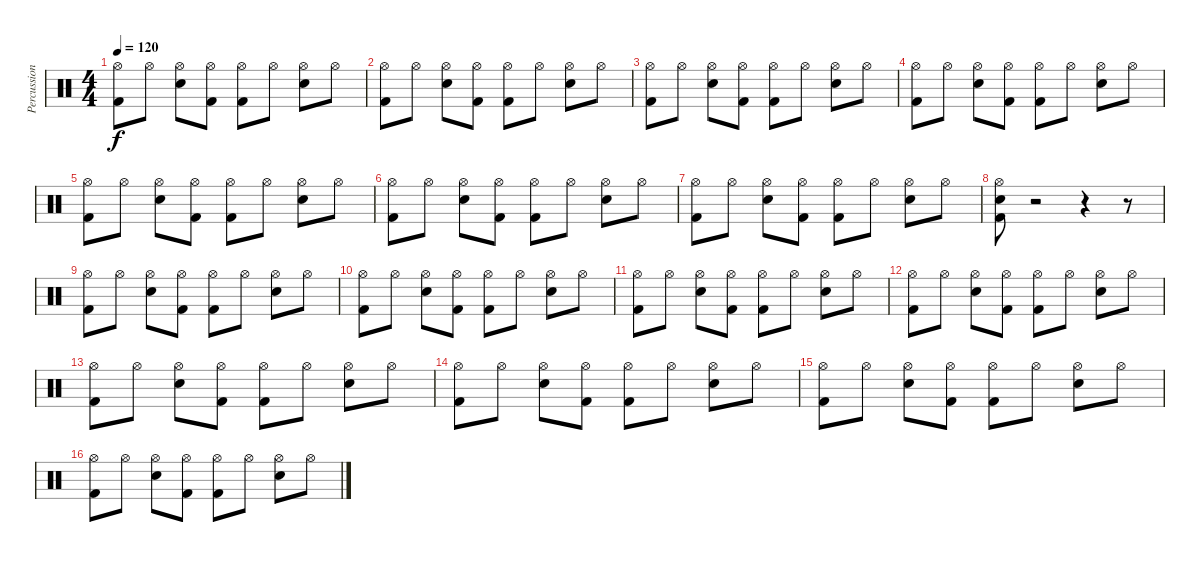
\track ("Percussion" "Percussion") {instrument percussion}
\staff {score}
\articulation defaults
\ts (4 4)
\tempo 120
\clef neutral
\ks c
("Hi-Hat (open)" "Kick (hit) 2").8{dy f} "Hi-Hat (open)".8 ("Hi-Hat (open)" "Snare (hit) 2").8 ("Hi-Hat (open)" "Kick (hit) 2").8 ("Hi-Hat (open)" "Kick (hit) 2").8 "Hi-Hat (open)".8 ("Hi-Hat (open)" "Snare (hit) 2").8 "Hi-Hat (open)".8 |
("Hi-Hat (open)" "Kick (hit) 2").8 "Hi-Hat (open)".8 ("Hi-Hat (open)" "Snare (hit) 2").8 ("Hi-Hat (open)" "Kick (hit) 2").8 ("Hi-Hat (open)" "Kick (hit) 2").8 "Hi-Hat (open)".8 ("Hi-Hat (open)" "Snare (hit) 2").8 "Hi-Hat (open)".8 |
("Hi-Hat (open)" "Kick (hit) 2").8 "Hi-Hat (open)".8 ("Hi-Hat (open)" "Snare (hit) 2").8 ("Hi-Hat (open)" "Kick (hit) 2").8 ("Hi-Hat (open)" "Kick (hit) 2").8 "Hi-Hat (open)".8 ("Hi-Hat (open)" "Snare (hit) 2").8 "Hi-Hat (open)".8 |
("Hi-Hat (open)" "Kick (hit) 2").8 "Hi-Hat (open)".8 ("Hi-Hat (open)" "Snare (hit) 2").8 ("Hi-Hat (open)" "Kick (hit) 2").8 ("Hi-Hat (open)" "Kick (hit) 2").8 "Hi-Hat (open)".8 ("Hi-Hat (open)" "Snare (hit) 2").8 "Hi-Hat (open)".8 |
("Hi-Hat (open)" "Kick (hit) 2").8 "Hi-Hat (open)".8 ("Hi-Hat (open)" "Snare (hit) 2").8 ("Hi-Hat (open)" "Kick (hit) 2").8 ("Hi-Hat (open)" "Kick (hit) 2").8 "Hi-Hat (open)".8 ("Hi-Hat (open)" "Snare (hit) 2").8 "Hi-Hat (open)".8 |
("Hi-Hat (open)" "Kick (hit) 2").8 "Hi-Hat (open)".8 ("Hi-Hat (open)" "Snare (hit) 2").8 ("Hi-Hat (open)" "Kick (hit) 2").8 ("Hi-Hat (open)" "Kick (hit) 2").8 "Hi-Hat (open)".8 ("Hi-Hat (open)" "Snare (hit) 2").8 "Hi-Hat (open)".8 |
("Hi-Hat (open)" "Kick (hit) 2").8 "Hi-Hat (open)".8 ("Hi-Hat (open)" "Snare (hit) 2").8 ("Hi-Hat (open)" "Kick (hit) 2").8 ("Hi-Hat (open)" "Kick (hit) 2").8 "Hi-Hat (open)".8 ("Hi-Hat (open)" "Snare (hit) 2").8 "Hi-Hat (open)".8 |
("Hi-Hat (open)" "Snare (hit) 2" "Kick (hit) 2").8 r.2 r.4 r.8 |
("Hi-Hat (open)" "Kick (hit) 2").8 "Hi-Hat (open)".8 ("Hi-Hat (open)" "Snare (hit) 2").8 ("Hi-Hat (open)" "Kick (hit) 2").8 ("Hi-Hat (open)" "Kick (hit) 2").8 "Hi-Hat (open)".8 ("Hi-Hat (open)" "Snare (hit) 2").8 "Hi-Hat (open)".8 |
("Hi-Hat (open)" "Kick (hit) 2").8 "Hi-Hat (open)".8 ("Hi-Hat (open)" "Snare (hit) 2").8 ("Hi-Hat (open)" "Kick (hit) 2").8 ("Hi-Hat (open)" "Kick (hit) 2").8 "Hi-Hat (open)".8 ("Hi-Hat (open)" "Snare (hit) 2").8 "Hi-Hat (open)".8 |
("Hi-Hat (open)" "Kick (hit) 2").8 "Hi-Hat (open)".8 ("Hi-Hat (open)" "Snare (hit) 2").8 ("Hi-Hat (open)" "Kick (hit) 2").8 ("Hi-Hat (open)" "Kick (hit) 2").8 "Hi-Hat (open)".8 ("Hi-Hat (open)" "Snare (hit) 2").8 "Hi-Hat (open)".8 |
("Hi-Hat (open)" "Kick (hit) 2").8 "Hi-Hat (open)".8 ("Hi-Hat (open)" "Snare (hit) 2").8 ("Hi-Hat (open)" "Kick (hit) 2").8 ("Hi-Hat (open)" "Kick (hit) 2").8 "Hi-Hat (open)".8 ("Hi-Hat (open)" "Snare (hit) 2").8 "Hi-Hat (open)".8 |
("Hi-Hat (open)" "Kick (hit) 2").8 "Hi-Hat (open)".8 ("Hi-Hat (open)" "Snare (hit) 2").8 ("Hi-Hat (open)" "Kick (hit) 2").8 ("Hi-Hat (open)" "Kick (hit) 2").8 "Hi-Hat (open)".8 ("Hi-Hat (open)" "Snare (hit) 2").8 "Hi-Hat (open)".8 |
("Hi-Hat (open)" "Kick (hit) 2").8 "Hi-Hat (open)".8 ("Hi-Hat (open)" "Snare (hit) 2").8 ("Hi-Hat (open)" "Kick (hit) 2").8 ("Hi-Hat (open)" "Kick (hit) 2").8 "Hi-Hat (open)".8 ("Hi-Hat (open)" "Snare (hit) 2").8 "Hi-Hat (open)".8 |
("Hi-Hat (open)" "Kick (hit) 2").8 "Hi-Hat (open)".8 ("Hi-Hat (open)" "Snare (hit) 2").8 ("Hi-Hat (open)" "Kick (hit) 2").8 ("Hi-Hat (open)" "Kick (hit) 2").8 "Hi-Hat (open)".8 ("Hi-Hat (open)" "Snare (hit) 2").8 "Hi-Hat (open)".8 |
("Hi-Hat (open)" "Kick (hit) 2").8 "Hi-Hat (open)".8 ("Hi-Hat (open)" "Snare (hit) 2").8 ("Hi-Hat (open)" "Kick (hit) 2").8 ("Hi-Hat (open)" "Kick (hit) 2").8 "Hi-Hat (open)".8 ("Hi-Hat (open)" "Snare (hit) 2").8 "Hi-Hat (open)".8
